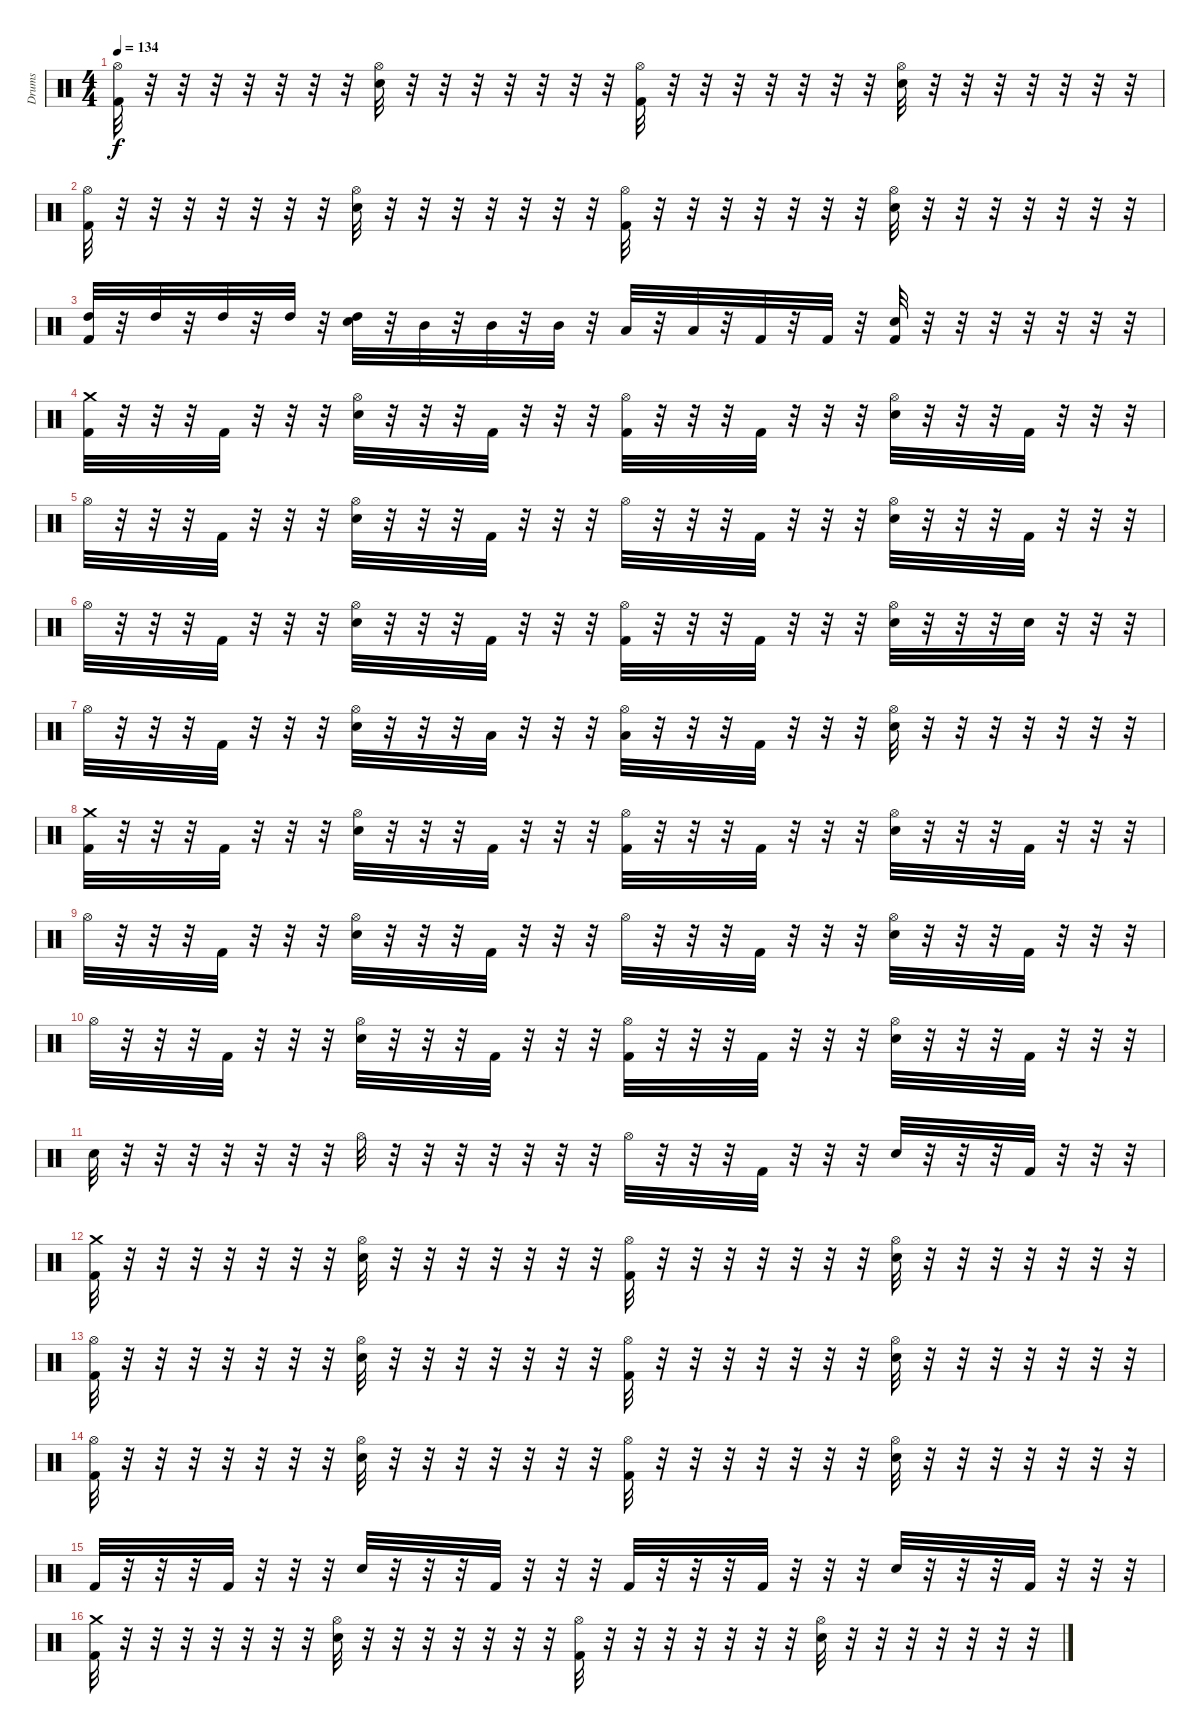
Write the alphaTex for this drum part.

\track ("Drums" "Drums") {instrument percussion}
\staff {score}
\articulation defaults
\ts (4 4)
\tempo 134
\clef neutral
\ks c
("Kick (hit) 2" "Hi-Hat (open)").32{dy f} r.32 r.32 r.32 r.32 r.32 r.32 r.32 ("Electric Snare (hit)" "Hi-Hat (open)").32 r.32 r.32 r.32 r.32 r.32 r.32 r.32 ("Kick (hit) 2" "Hi-Hat (open)").32 r.32 r.32 r.32 r.32 r.32 r.32 r.32 ("Electric Snare (hit)" "Hi-Hat (open)").32 r.32 r.32 r.32 r.32 r.32 r.32 r.32 |
("Kick (hit) 2" "Hi-Hat (open)").32 r.32 r.32 r.32 r.32 r.32 r.32 r.32 ("Electric Snare (hit)" "Hi-Hat (open)").32 r.32 r.32 r.32 r.32 r.32 r.32 r.32 ("Kick (hit) 2" "Hi-Hat (open)").32 r.32 r.32 r.32 r.32 r.32 r.32 r.32 ("Electric Snare (hit)" "Hi-Hat (open)").32 r.32 r.32 r.32 r.32 r.32 r.32 r.32 |
("Kick (hit) 2" "High Tom (hit)").32 r.32 "High Tom (hit)".32 r.32 "High Tom (hit)".32 r.32 "High Tom (hit)".32 r.32 ("Electric Snare (hit)" "High Tom (hit)").32 r.32 "Mid Tom (hit)".32 r.32 "Mid Tom (hit)".32 r.32 "Mid Tom (hit)".32 r.32 "Low Tom (hit)".32 r.32 "Low Tom (hit)".32 r.32 "Kick (hit) 2".32 r.32 "Kick (hit) 2".32 r.32 ("Electric Snare (hit)" "Kick (hit) 2").32 r.32 r.32 r.32 r.32 r.32 r.32 r.32 |
("Kick (hit) 2" "Crash medium (hit)").32 r.32 r.32 r.32 "Kick (hit) 2".32 r.32 r.32 r.32 ("Electric Snare (hit)" "Hi-Hat (open)").32 r.32 r.32 r.32 "Kick (hit) 2".32 r.32 r.32 r.32 ("Kick (hit) 2" "Hi-Hat (open)").32 r.32 r.32 r.32 "Kick (hit) 2".32 r.32 r.32 r.32 ("Electric Snare (hit)" "Hi-Hat (open)").32 r.32 r.32 r.32 "Kick (hit) 2".32 r.32 r.32 r.32 |
"Hi-Hat (open)".32 r.32 r.32 r.32 "Kick (hit) 2".32 r.32 r.32 r.32 ("Electric Snare (hit)" "Hi-Hat (open)").32 r.32 r.32 r.32 "Kick (hit) 2".32 r.32 r.32 r.32 "Hi-Hat (open)".32 r.32 r.32 r.32 "Kick (hit) 2".32 r.32 r.32 r.32 ("Electric Snare (hit)" "Hi-Hat (open)").32 r.32 r.32 r.32 "Kick (hit) 2".32 r.32 r.32 r.32 |
"Hi-Hat (open)".32 r.32 r.32 r.32 "Kick (hit) 2".32 r.32 r.32 r.32 ("Electric Snare (hit)" "Hi-Hat (open)").32 r.32 r.32 r.32 "Kick (hit) 2".32 r.32 r.32 r.32 ("Kick (hit) 2" "Hi-Hat (open)").32 r.32 r.32 r.32 "Kick (hit) 2".32 r.32 r.32 r.32 ("Electric Snare (hit)" "Hi-Hat (open)").32 r.32 r.32 r.32 "Electric Snare (hit)".32 r.32 r.32 r.32 |
"Hi-Hat (open)".32 r.32 r.32 r.32 "Kick (hit) 2".32 r.32 r.32 r.32 ("Electric Snare (hit)" "Hi-Hat (open)").32 r.32 r.32 r.32 "Low Tom (hit)".32 r.32 r.32 r.32 ("Low Floor Tom (hit)" "Hi-Hat (open)").32 r.32 r.32 r.32 "Kick (hit) 2".32 r.32 r.32 r.32 ("Electric Snare (hit)" "Hi-Hat (open)").32 r.32 r.32 r.32 r.32 r.32 r.32 r.32 |
("Kick (hit) 2" "Crash medium (hit)").32 r.32 r.32 r.32 "Kick (hit) 2".32 r.32 r.32 r.32 ("Electric Snare (hit)" "Hi-Hat (open)").32 r.32 r.32 r.32 "Kick (hit) 2".32 r.32 r.32 r.32 ("Kick (hit) 2" "Hi-Hat (open)").32 r.32 r.32 r.32 "Kick (hit) 2".32 r.32 r.32 r.32 ("Electric Snare (hit)" "Hi-Hat (open)").32 r.32 r.32 r.32 "Kick (hit) 2".32 r.32 r.32 r.32 |
"Hi-Hat (open)".32 r.32 r.32 r.32 "Kick (hit) 2".32 r.32 r.32 r.32 ("Electric Snare (hit)" "Hi-Hat (open)").32 r.32 r.32 r.32 "Kick (hit) 2".32 r.32 r.32 r.32 "Hi-Hat (open)".32 r.32 r.32 r.32 "Kick (hit) 2".32 r.32 r.32 r.32 ("Electric Snare (hit)" "Hi-Hat (open)").32 r.32 r.32 r.32 "Kick (hit) 2".32 r.32 r.32 r.32 |
"Hi-Hat (open)".32 r.32 r.32 r.32 "Kick (hit) 2".32 r.32 r.32 r.32 ("Electric Snare (hit)" "Hi-Hat (open)").32 r.32 r.32 r.32 "Kick (hit) 2".32 r.32 r.32 r.32 ("Kick (hit) 2" "Hi-Hat (open)").32 r.32 r.32 r.32 "Kick (hit) 2".32 r.32 r.32 r.32 ("Electric Snare (hit)" "Hi-Hat (open)").32 r.32 r.32 r.32 "Kick (hit) 2".32 r.32 r.32 r.32 |
"Electric Snare (hit)".32 r.32 r.32 r.32 r.32 r.32 r.32 r.32 "Hi-Hat (open)".32 r.32 r.32 r.32 r.32 r.32 r.32 r.32 "Hi-Hat (open)".32 r.32 r.32 r.32 "Kick (hit) 2".32 r.32 r.32 r.32 "Electric Snare (hit)".32 r.32 r.32 r.32 "Kick (hit) 2".32 r.32 r.32 r.32 |
("Kick (hit) 2" "Crash medium (hit)").32 r.32 r.32 r.32 r.32 r.32 r.32 r.32 ("Electric Snare (hit)" "Hi-Hat (open)").32 r.32 r.32 r.32 r.32 r.32 r.32 r.32 ("Kick (hit) 2" "Hi-Hat (open)").32 r.32 r.32 r.32 r.32 r.32 r.32 r.32 ("Electric Snare (hit)" "Hi-Hat (open)").32 r.32 r.32 r.32 r.32 r.32 r.32 r.32 |
("Kick (hit) 2" "Hi-Hat (open)").32 r.32 r.32 r.32 r.32 r.32 r.32 r.32 ("Electric Snare (hit)" "Hi-Hat (open)").32 r.32 r.32 r.32 r.32 r.32 r.32 r.32 ("Kick (hit) 2" "Hi-Hat (open)").32 r.32 r.32 r.32 r.32 r.32 r.32 r.32 ("Electric Snare (hit)" "Hi-Hat (open)").32 r.32 r.32 r.32 r.32 r.32 r.32 r.32 |
("Kick (hit) 2" "Hi-Hat (open)").32 r.32 r.32 r.32 r.32 r.32 r.32 r.32 ("Electric Snare (hit)" "Hi-Hat (open)").32 r.32 r.32 r.32 r.32 r.32 r.32 r.32 ("Kick (hit) 2" "Hi-Hat (open)").32 r.32 r.32 r.32 r.32 r.32 r.32 r.32 ("Electric Snare (hit)" "Hi-Hat (open)").32 r.32 r.32 r.32 r.32 r.32 r.32 r.32 |
"Kick (hit) 2".32 r.32 r.32 r.32 "Kick (hit) 2".32 r.32 r.32 r.32 "Electric Snare (hit)".32 r.32 r.32 r.32 "Kick (hit) 2".32 r.32 r.32 r.32 "Kick (hit) 2".32 r.32 r.32 r.32 "Kick (hit) 2".32 r.32 r.32 r.32 "Electric Snare (hit)".32 r.32 r.32 r.32 "Kick (hit) 2".32 r.32 r.32 r.32 |
("Kick (hit) 2" "Crash medium (hit)").32 r.32 r.32 r.32 r.32 r.32 r.32 r.32 ("Electric Snare (hit)" "Hi-Hat (open)").32 r.32 r.32 r.32 r.32 r.32 r.32 r.32 ("Kick (hit) 2" "Hi-Hat (open)").32 r.32 r.32 r.32 r.32 r.32 r.32 r.32 ("Electric Snare (hit)" "Hi-Hat (open)").32 r.32 r.32 r.32 r.32 r.32 r.32 r.32
